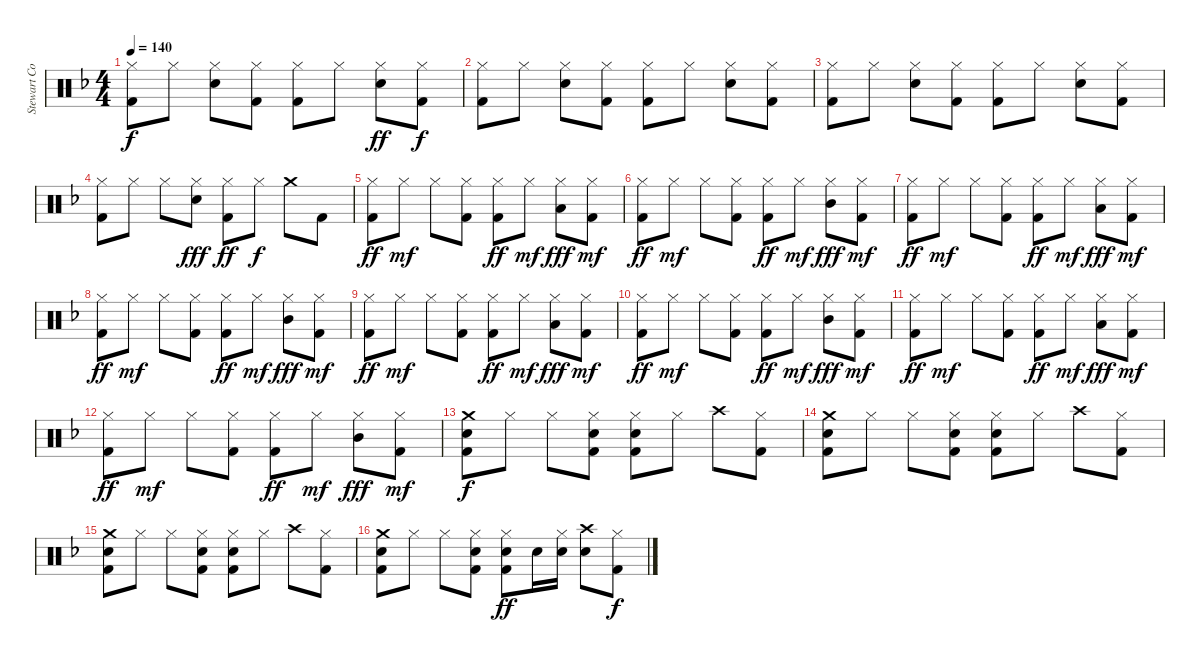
\track ("Stewart Copeland" "Stewart Co") {instrument percussion}
\staff {score}
\articulation defaults
\ts (4 4)
\tempo 140
\clef neutral
\ks f
("Hi-Hat (closed)" "Kick (hit) 2").8{dy f} "Hi-Hat (closed)".8 ("Hi-Hat (closed)" "Snare (hit) 2").8 ("Hi-Hat (closed)" "Kick (hit) 2").8 ("Hi-Hat (closed)" "Kick (hit) 2").8 "Hi-Hat (closed)".8 ("Hi-Hat (closed)" "Snare (hit) 2").8{dy ff} ("Hi-Hat (closed)" "Kick (hit) 2").8{dy f} |
("Hi-Hat (closed)" "Kick (hit) 2").8 "Hi-Hat (closed)".8 ("Hi-Hat (closed)" "Snare (hit) 2").8 ("Hi-Hat (closed)" "Kick (hit) 2").8 ("Hi-Hat (closed)" "Kick (hit) 2").8 "Hi-Hat (closed)".8 ("Hi-Hat (closed)" "Snare (hit) 2").8 ("Hi-Hat (closed)" "Kick (hit) 2").8 |
("Hi-Hat (closed)" "Kick (hit) 2").8 "Hi-Hat (closed)".8 ("Hi-Hat (closed)" "Snare (hit) 2").8 ("Hi-Hat (closed)" "Kick (hit) 2").8 ("Hi-Hat (closed)" "Kick (hit) 2").8 "Hi-Hat (closed)".8 ("Hi-Hat (closed)" "Snare (hit) 2").8 ("Hi-Hat (closed)" "Kick (hit) 2").8 |
("Hi-Hat (closed)" "Kick (hit) 2").8 "Hi-Hat (closed)".8 "Hi-Hat (closed)".8 ("Hi-Hat (closed)" "Snare (hit) 2").8{dy fff} ("Hi-Hat (closed)" "Kick (hit) 2").8{dy ff} "Hi-Hat (closed)".8{dy f} "Crash medium (hit)".8 "Kick (hit) 2".8 |
("Hi-Hat (closed)" "Kick (hit) 2").8{dy ff} "Hi-Hat (closed)".8{dy mf} "Hi-Hat (closed)".8 ("Hi-Hat (closed)" "Kick (hit) 2").8 ("Hi-Hat (closed)" "Kick (hit) 2").8{dy ff} "Hi-Hat (closed)".8{dy mf} ("Hi-Hat (closed)" "Low Tom (hit)").8{dy fff} ("Hi-Hat (closed)" "Kick (hit) 2").8{dy mf} |
("Hi-Hat (closed)" "Kick (hit) 2").8{dy ff} "Hi-Hat (closed)".8{dy mf} "Hi-Hat (closed)".8 ("Hi-Hat (closed)" "Kick (hit) 2").8 ("Hi-Hat (closed)" "Kick (hit) 2").8{dy ff} "Hi-Hat (closed)".8{dy mf} ("Hi-Hat (closed)" "Mid Tom (hit)").8{dy fff} ("Hi-Hat (closed)" "Kick (hit) 2").8{dy mf} |
("Hi-Hat (closed)" "Kick (hit) 2").8{dy ff} "Hi-Hat (closed)".8{dy mf} "Hi-Hat (closed)".8 ("Hi-Hat (closed)" "Kick (hit) 2").8 ("Hi-Hat (closed)" "Kick (hit) 2").8{dy ff} "Hi-Hat (closed)".8{dy mf} ("Hi-Hat (closed)" "Low Tom (hit)").8{dy fff} ("Hi-Hat (closed)" "Kick (hit) 2").8{dy mf} |
("Hi-Hat (closed)" "Kick (hit) 2").8{dy ff} "Hi-Hat (closed)".8{dy mf} "Hi-Hat (closed)".8 ("Hi-Hat (closed)" "Kick (hit) 2").8 ("Hi-Hat (closed)" "Kick (hit) 2").8{dy ff} "Hi-Hat (closed)".8{dy mf} ("Hi-Hat (closed)" "Mid Tom (hit)").8{dy fff} ("Hi-Hat (closed)" "Kick (hit) 2").8{dy mf} |
("Hi-Hat (closed)" "Kick (hit) 2").8{dy ff} "Hi-Hat (closed)".8{dy mf} "Hi-Hat (closed)".8 ("Hi-Hat (closed)" "Kick (hit) 2").8 ("Hi-Hat (closed)" "Kick (hit) 2").8{dy ff} "Hi-Hat (closed)".8{dy mf} ("Hi-Hat (closed)" "Low Tom (hit)").8{dy fff} ("Hi-Hat (closed)" "Kick (hit) 2").8{dy mf} |
("Hi-Hat (closed)" "Kick (hit) 2").8{dy ff} "Hi-Hat (closed)".8{dy mf} "Hi-Hat (closed)".8 ("Hi-Hat (closed)" "Kick (hit) 2").8 ("Hi-Hat (closed)" "Kick (hit) 2").8{dy ff} "Hi-Hat (closed)".8{dy mf} ("Hi-Hat (closed)" "Mid Tom (hit)").8{dy fff} ("Hi-Hat (closed)" "Kick (hit) 2").8{dy mf} |
("Hi-Hat (closed)" "Kick (hit) 2").8{dy ff} "Hi-Hat (closed)".8{dy mf} "Hi-Hat (closed)".8 ("Hi-Hat (closed)" "Kick (hit) 2").8 ("Hi-Hat (closed)" "Kick (hit) 2").8{dy ff} "Hi-Hat (closed)".8{dy mf} ("Hi-Hat (closed)" "Low Tom (hit)").8{dy fff} ("Hi-Hat (closed)" "Kick (hit) 2").8{dy mf} |
("Hi-Hat (closed)" "Kick (hit) 2").8{dy ff} "Hi-Hat (closed)".8{dy mf} "Hi-Hat (closed)".8 ("Hi-Hat (closed)" "Kick (hit) 2").8 ("Hi-Hat (closed)" "Kick (hit) 2").8{dy ff} "Hi-Hat (closed)".8{dy mf} ("Hi-Hat (closed)" "Mid Tom (hit)").8{dy fff} ("Hi-Hat (closed)" "Kick (hit) 2").8{dy mf} |
("Crash medium (hit)" "Snare (hit) 2" "Kick (hit) 2").8{dy f} "Hi-Hat (closed)".8 "Hi-Hat (closed)".8 ("Hi-Hat (closed)" "Snare (hit) 2" "Kick (hit) 2").8 ("Hi-Hat (closed)" "Snare (hit) 2" "Kick (hit) 2").8 "Hi-Hat (closed)".8 "Crash high (hit)".8 ("Hi-Hat (closed)" "Kick (hit) 2").8 |
("Crash medium (hit)" "Snare (hit) 2" "Kick (hit) 2").8 "Hi-Hat (closed)".8 "Hi-Hat (closed)".8 ("Hi-Hat (closed)" "Snare (hit) 2" "Kick (hit) 2").8 ("Hi-Hat (closed)" "Snare (hit) 2" "Kick (hit) 2").8 "Hi-Hat (closed)".8 "Crash high (hit)".8 ("Hi-Hat (closed)" "Kick (hit) 2").8 |
("Crash medium (hit)" "Snare (hit) 2" "Kick (hit) 2").8 "Hi-Hat (closed)".8 "Hi-Hat (closed)".8 ("Hi-Hat (closed)" "Snare (hit) 2" "Kick (hit) 2").8 ("Hi-Hat (closed)" "Snare (hit) 2" "Kick (hit) 2").8 "Hi-Hat (closed)".8 "Crash high (hit)".8 ("Hi-Hat (closed)" "Kick (hit) 2").8 |
("Crash medium (hit)" "Snare (hit) 2" "Kick (hit) 2").8 "Hi-Hat (closed)".8 "Hi-Hat (closed)".8 ("Hi-Hat (closed)" "Snare (hit) 2" "Kick (hit) 2").8 ("Hi-Hat (closed)" "Snare (hit) 2" "Kick (hit) 2").8{dy ff} "Snare (hit) 2".16 ("Hi-Hat (closed)" "Snare (hit) 2").16 ("Crash high (hit)" "Snare (hit) 2").8 ("Hi-Hat (closed)" "Kick (hit) 2").8{dy f}
